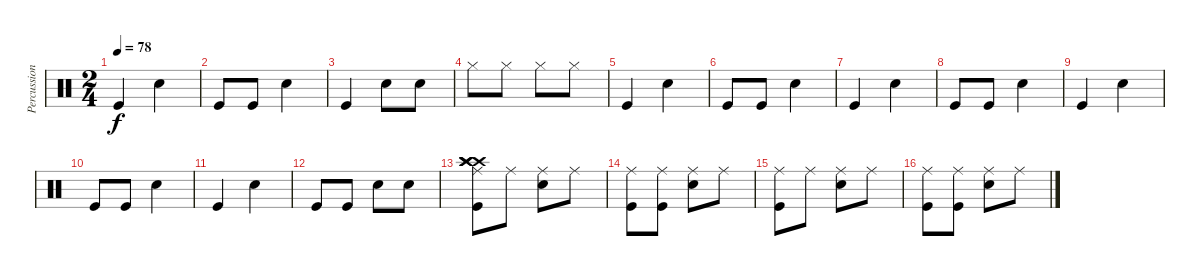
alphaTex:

\track ("Percussion" "Percussion") {instrument percussion}
\staff {score}
\articulation defaults
\ts (2 4)
\tempo 78
\clef neutral
\ks c "Kick (hit)".4{dy f} "Snare (hit) 2".4
|
"Kick (hit)".8 "Kick (hit)".8 "Snare (hit) 2".4 |
"Kick (hit)".4 "Snare (hit) 2".8 "Snare (hit) 2".8 |
"Hi-Hat (closed)".8 "Hi-Hat (closed)".8 "Hi-Hat (closed)".8 "Hi-Hat (closed)".8 |
"Kick (hit)".4 "Metronome (bell)".4 |
"Kick (hit)".8 "Kick (hit)".8 "Metronome (bell)".4 |
"Kick (hit)".4 "Metronome (bell)".4 |
"Kick (hit)".8 "Kick (hit)".8 "Metronome (bell)".4 |
"Kick (hit)".4 "Metronome (bell)".4 |
"Kick (hit)".8 "Kick (hit)".8 "Metronome (bell)".4 |
"Kick (hit)".4 "Metronome (bell)".4 |
"Kick (hit)".8 "Kick (hit)".8 "Metronome (bell)".8 "Metronome (bell)".8 |
("Ride (middle)" "Kick (hit)" "Crash high (hit)" "Crash high (hit)" "Crash high (hit)" "Crash high (hit)").8 "Ride (middle)".8 ("Ride (middle)" "Metronome (bell)").8 "Ride (middle)".8 |
("Ride (middle)" "Kick (hit)").8 ("Ride (middle)" "Kick (hit)").8 ("Ride (middle)" "Metronome (bell)").8 "Ride (middle)".8 |
("Ride (middle)" "Kick (hit)").8 "Ride (middle)".8 ("Ride (middle)" "Metronome (bell)").8 "Ride (middle)".8 |
("Ride (middle)" "Kick (hit)").8 ("Ride (middle)" "Kick (hit)").8 ("Ride (middle)" "Metronome (bell)").8 "Ride (middle)".8
